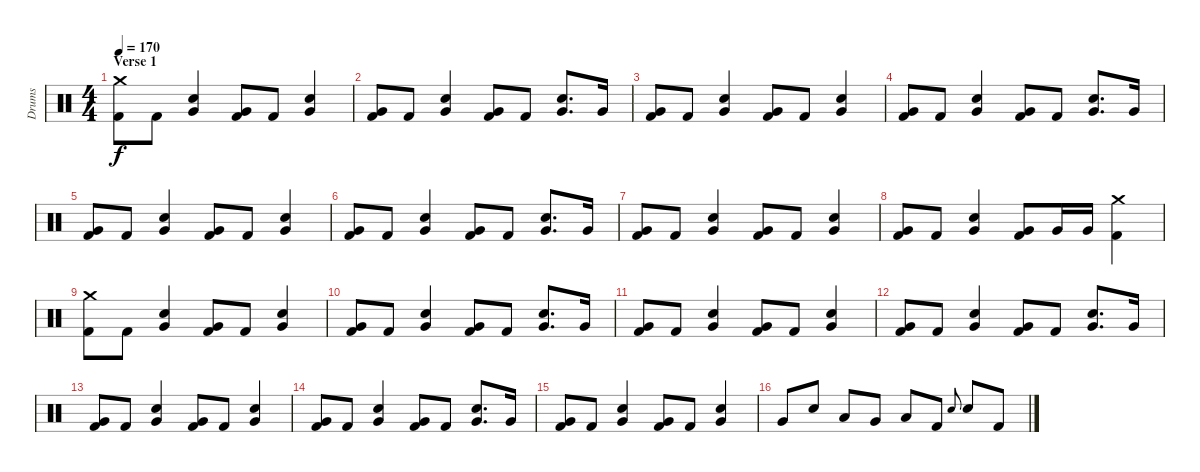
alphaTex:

\track ("Drums" "Drums") {instrument percussion}
\staff {score}
\articulation defaults
\ts (4 4)
\section ("" "Verse 1")
\tempo 170
\clef neutral
\ks c
("Crash medium (hit)" "Kick (hit) 2").8{dy f} "Kick (hit) 2".8 ("Snare (hit) 2" "Very Low Tom (hit)").4 ("Very Low Tom (hit)" "Kick (hit) 2").8 "Kick (hit) 2".8 ("Snare (hit) 2" "Very Low Tom (hit)").4 |
("Very Low Tom (hit)" "Kick (hit) 2").8 "Kick (hit) 2".8 ("Snare (hit) 2" "Very Low Tom (hit)").4 ("Very Low Tom (hit)" "Kick (hit) 2").8 "Kick (hit) 2".8 ("Snare (hit) 2" "Very Low Tom (hit)").8{d} "Very Low Tom (hit)".16 |
("Very Low Tom (hit)" "Kick (hit) 2").8 "Kick (hit) 2".8 ("Snare (hit) 2" "Very Low Tom (hit)").4 ("Very Low Tom (hit)" "Kick (hit) 2").8 "Kick (hit) 2".8 ("Snare (hit) 2" "Very Low Tom (hit)").4 |
("Very Low Tom (hit)" "Kick (hit) 2").8 "Kick (hit) 2".8 ("Snare (hit) 2" "Very Low Tom (hit)").4 ("Very Low Tom (hit)" "Kick (hit) 2").8 "Kick (hit) 2".8 ("Snare (hit) 2" "Very Low Tom (hit)").8{d} "Very Low Tom (hit)".16 |
("Very Low Tom (hit)" "Kick (hit) 2").8 "Kick (hit) 2".8 ("Snare (hit) 2" "Very Low Tom (hit)").4 ("Very Low Tom (hit)" "Kick (hit) 2").8 "Kick (hit) 2".8 ("Snare (hit) 2" "Very Low Tom (hit)").4 |
("Very Low Tom (hit)" "Kick (hit) 2").8 "Kick (hit) 2".8 ("Snare (hit) 2" "Very Low Tom (hit)").4 ("Very Low Tom (hit)" "Kick (hit) 2").8 "Kick (hit) 2".8 ("Snare (hit) 2" "Very Low Tom (hit)").8{d} "Very Low Tom (hit)".16 |
("Very Low Tom (hit)" "Kick (hit) 2").8 "Kick (hit) 2".8 ("Snare (hit) 2" "Very Low Tom (hit)").4 ("Very Low Tom (hit)" "Kick (hit) 2").8 "Kick (hit) 2".8 ("Snare (hit) 2" "Very Low Tom (hit)").4 |
("Very Low Tom (hit)" "Kick (hit) 2").8 "Kick (hit) 2".8 ("Snare (hit) 2" "Very Low Tom (hit)").4 ("Very Low Tom (hit)" "Kick (hit) 2").8 "Very Low Tom (hit)".16 "Very Low Tom (hit)".16 ("Crash medium (hit)" "Kick (hit) 2").4 |
("Crash medium (hit)" "Kick (hit) 2").8 "Kick (hit) 2".8 ("Snare (hit) 2" "Very Low Tom (hit)").4 ("Very Low Tom (hit)" "Kick (hit) 2").8 "Kick (hit) 2".8 ("Snare (hit) 2" "Very Low Tom (hit)").4 |
("Very Low Tom (hit)" "Kick (hit) 2").8 "Kick (hit) 2".8 ("Snare (hit) 2" "Very Low Tom (hit)").4 ("Very Low Tom (hit)" "Kick (hit) 2").8 "Kick (hit) 2".8 ("Snare (hit) 2" "Very Low Tom (hit)").8{d} "Very Low Tom (hit)".16 |
("Very Low Tom (hit)" "Kick (hit) 2").8 "Kick (hit) 2".8 ("Snare (hit) 2" "Very Low Tom (hit)").4 ("Very Low Tom (hit)" "Kick (hit) 2").8 "Kick (hit) 2".8 ("Snare (hit) 2" "Very Low Tom (hit)").4 |
("Very Low Tom (hit)" "Kick (hit) 2").8 "Kick (hit) 2".8 ("Snare (hit) 2" "Very Low Tom (hit)").4 ("Very Low Tom (hit)" "Kick (hit) 2").8 "Kick (hit) 2".8 ("Snare (hit) 2" "Very Low Tom (hit)").8{d} "Very Low Tom (hit)".16 |
("Very Low Tom (hit)" "Kick (hit) 2").8 "Kick (hit) 2".8 ("Snare (hit) 2" "Very Low Tom (hit)").4 ("Very Low Tom (hit)" "Kick (hit) 2").8 "Kick (hit) 2".8 ("Snare (hit) 2" "Very Low Tom (hit)").4 |
("Very Low Tom (hit)" "Kick (hit) 2").8 "Kick (hit) 2".8 ("Snare (hit) 2" "Very Low Tom (hit)").4 ("Very Low Tom (hit)" "Kick (hit) 2").8 "Kick (hit) 2".8 ("Snare (hit) 2" "Very Low Tom (hit)").8{d} "Very Low Tom (hit)".16 |
("Very Low Tom (hit)" "Kick (hit) 2").8 "Kick (hit) 2".8 ("Snare (hit) 2" "Very Low Tom (hit)").4 ("Very Low Tom (hit)" "Kick (hit) 2").8 "Kick (hit) 2".8 ("Snare (hit) 2" "Very Low Tom (hit)").4 |
"Very Low Tom (hit)".8 "Snare (hit) 2".8 "Low Tom (hit)".8 "Very Low Tom (hit)".8 "Low Floor Tom (hit)".8 "Kick (hit) 2".8 "Snare (hit) 2".8{gr onbeat} "Snare (hit) 2".8 "Kick (hit) 2".8
